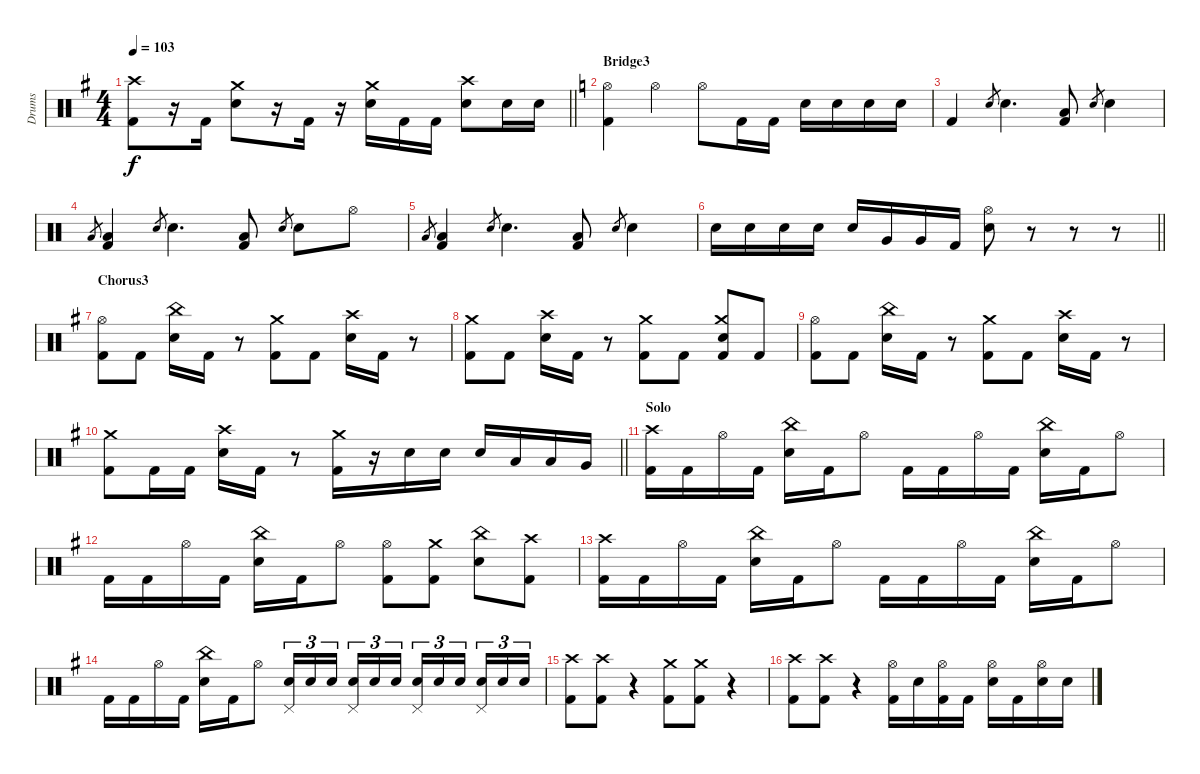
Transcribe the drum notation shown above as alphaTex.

\track ("Drums" "Drums") {instrument percussion}
\staff {score}
\articulation defaults
\ts (4 4)
\tempo 103
\clef neutral
\barLineRight lightlight
\ks eminor
("Crash high (hit)" "Kick (hit) 2").8{dy f} r.16 "Kick (hit) 2".16 ("Crash medium (hit)" "Electric Snare (hit)").8 r.16 "Kick (hit) 2".16 r.16 ("Crash medium (hit)" "Electric Snare (hit)").16 "Kick (hit) 2".16 "Kick (hit) 2".16 ("Crash high (hit)" "Electric Snare (hit)").8 "Electric Snare (hit)".16 "Electric Snare (hit)".16 |
\section ("" "Bridge3")
\ks c
("Hi-Hat (open)" "Kick (hit) 2").4 "Hi-Hat (open)".4 "Hi-Hat (open)".8 "Kick (hit) 2".16 "Kick (hit) 2".16 "Electric Snare (hit)".16 "Electric Snare (hit)".16 "Electric Snare (hit)".16 "Electric Snare (hit)".16 |
"Kick (hit) 2".4 "Snare (hit) 2".8{gr} "Electric Snare (hit)".4{d} ("Low Floor Tom (hit)" "Kick (hit) 2").8 "Snare (hit) 2".8{gr} "Electric Snare (hit)".4 |
"Low Floor Tom (hit)".8{gr} ("Low Floor Tom (hit)" "Kick (hit) 2").4 "Snare (hit) 2".8{gr} "Electric Snare (hit)".4{d} ("Low Floor Tom (hit)" "Kick (hit) 2").8 "Snare (hit) 2".8{gr} "Electric Snare (hit)".8 "Hi-Hat (open)".8 |
"Low Floor Tom (hit)".8{gr} ("Low Floor Tom (hit)" "Kick (hit) 2").4 "Snare (hit) 2".8{gr} "Electric Snare (hit)".4{d} ("Low Floor Tom (hit)" "Kick (hit) 2").8 "Snare (hit) 2".8{gr} "Electric Snare (hit)".4 |
\barLineRight lightlight "Electric Snare (hit)".16 "Electric Snare (hit)".16 "Electric Snare (hit)".16 "Electric Snare (hit)".16 "Electric Snare (hit)".16 "Very Low Tom (hit)".16 "Very Low Tom (hit)".16 "Kick (hit) 2".16
("Hi-Hat (open)" "Electric Snare (hit)").8 r.8 r.8 r.8 |
\section ("" "Chorus3")
\ks eminor
("Hi-Hat (open)" "Kick (hit) 2").8 "Kick (hit) 2".8 ("China (hit)" "Electric Snare (hit)").16 "Kick (hit) 2".16 r.8 ("Crash medium (hit)" "Kick (hit) 2").8 "Kick (hit) 2".8 ("Crash high (hit)" "Electric Snare (hit)").16 "Kick (hit) 2".16 r.8 |
("Crash medium (hit)" "Kick (hit) 2").8 "Kick (hit) 2".8 ("Crash high (hit)" "Electric Snare (hit)").16 "Kick (hit) 2".16 r.8 ("Crash medium (hit)" "Kick (hit) 2").8 "Kick (hit) 2".8 ("Crash medium (hit)" "Electric Snare (hit)" "Kick (hit) 2").8 "Kick (hit) 2".8 |
("Hi-Hat (open)" "Kick (hit) 2").8 "Kick (hit) 2".8 ("China (hit)" "Electric Snare (hit)").16 "Kick (hit) 2".16 r.8 ("Crash medium (hit)" "Kick (hit) 2").8 "Kick (hit) 2".8 ("Crash high (hit)" "Electric Snare (hit)").16 "Kick (hit) 2".16 r.8 |
\barLineRight lightlight
("Crash medium (hit)" "Kick (hit) 2").8 "Kick (hit) 2".16 "Kick (hit) 2".16 ("Crash high (hit)" "Electric Snare (hit)").16 "Kick (hit) 2".16 r.8 ("Crash medium (hit)" "Kick (hit) 2").16 r.16 "Electric Snare (hit)".16 "Electric Snare (hit)".16 "Electric Snare (hit)".16 "Low Tom (hit)".16 "Low Tom (hit)".16 "Very Low Tom (hit)".16 |
\section ("" "Solo")
("Crash high (hit)" "Kick (hit) 2").16 "Kick (hit) 2".16 "Hi-Hat (open)".16 "Kick (hit) 2".16 ("China (hit)" "Electric Snare (hit)").16 "Kick (hit) 2".16 "Hi-Hat (open)".8 "Kick (hit) 2".16 "Kick (hit) 2".16 "Hi-Hat (open)".16 "Kick (hit) 2".16 ("China (hit)" "Electric Snare (hit)").16 "Kick (hit) 2".16 "Hi-Hat (open)".8 |
"Kick (hit) 2".16 "Kick (hit) 2".16 "Hi-Hat (open)".16 "Kick (hit) 2".16 ("China (hit)" "Electric Snare (hit)").16 "Kick (hit) 2".16 "Hi-Hat (open)".8 ("Hi-Hat (open)" "Kick (hit) 2").8 ("Crash medium (hit)" "Kick (hit) 2").8 ("China (hit)" "Electric Snare (hit)").8 ("Crash high (hit)" "Kick (hit) 2").8 |
("Crash high (hit)" "Kick (hit) 2").16 "Kick (hit) 2".16 "Hi-Hat (open)".16 "Kick (hit) 2".16 ("China (hit)" "Electric Snare (hit)").16 "Kick (hit) 2".16 "Hi-Hat (open)".8 "Kick (hit) 2".16 "Kick (hit) 2".16 "Hi-Hat (open)".16 "Kick (hit) 2".16 ("China (hit)" "Electric Snare (hit)").16 "Kick (hit) 2".16 "Hi-Hat (open)".8 |
"Kick (hit) 2".16 "Kick (hit) 2".16 "Hi-Hat (open)".16 "Kick (hit) 2".16 ("China (hit)" "Electric Snare (hit)").16 "Kick (hit) 2".16 "Hi-Hat (open)".8 ("Pedal Hi-Hat (hit)" "Electric Snare (hit)").16{tu (3 2)} "Electric Snare (hit)".16{tu (3 2)} "Electric Snare (hit)".16{tu (3 2) beam splitsecondary} ("Pedal Hi-Hat (hit)" "Electric Snare (hit)").16{tu (3 2)} "Electric Snare (hit)".16{tu (3 2)} "Electric Snare (hit)".16{tu (3 2)} ("Pedal Hi-Hat (hit)" "Electric Snare (hit)").16{tu (3 2)} "Electric Snare (hit)".16{tu (3 2)} "Electric Snare (hit)".16{tu (3 2) beam splitsecondary} ("Pedal Hi-Hat (hit)" "Electric Snare (hit)").16{tu (3 2)} "Electric Snare (hit)".16{tu (3 2)} "Electric Snare (hit)".16{tu (3 2)} |
("Crash high (hit)" "Kick (hit) 2").8 ("Crash high (hit)" "Kick (hit) 2").8 r.4 ("Crash medium (hit)" "Kick (hit) 2").8 ("Crash medium (hit)" "Kick (hit) 2").8 r.4 |
("Crash high (hit)" "Kick (hit) 2").8 ("Crash high (hit)" "Kick (hit) 2").8 r.4 ("Hi-Hat (open)" "Kick (hit) 2").16 "Electric Snare (hit)".16 ("Hi-Hat (open)" "Kick (hit) 2").16 "Kick (hit) 2".16 ("Hi-Hat (open)" "Electric Snare (hit)").16 "Kick (hit) 2".16 ("Hi-Hat (open)" "Electric Snare (hit)").16 "Electric Snare (hit)".16
